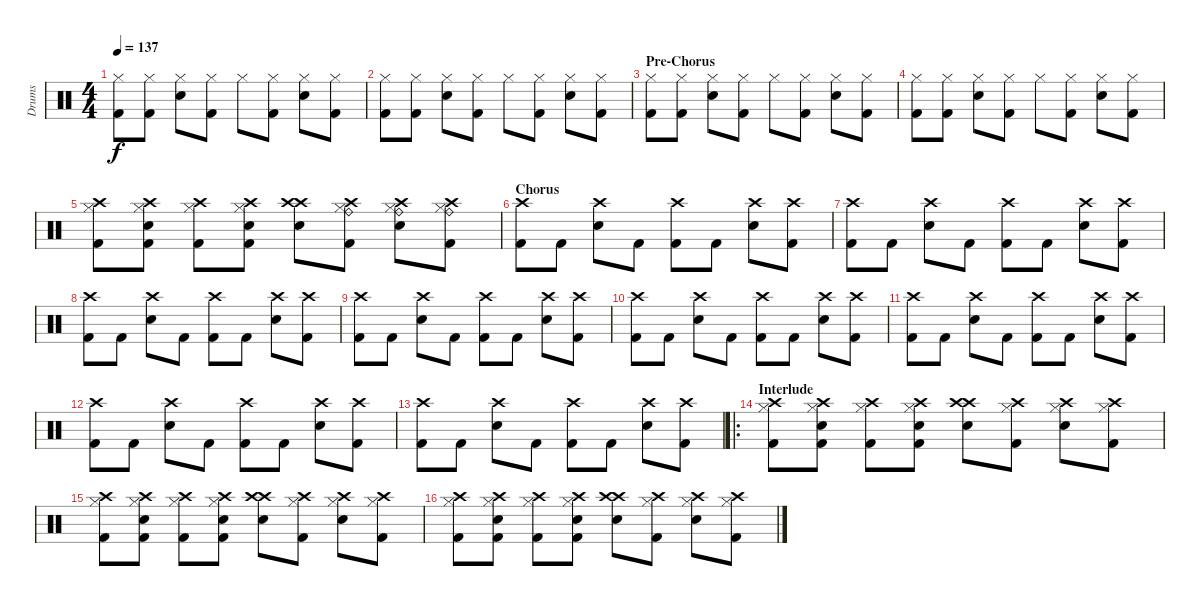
\track ("Drums" "Drums") {instrument percussion}
\staff {score}
\articulation defaults
\ts (4 4)
\tempo 137
\clef neutral
\ks c
("Kick (hit) 2" "Hi-Hat (closed)").8{dy f} ("Kick (hit) 2" "Hi-Hat (closed)").8 ("Snare (hit) 2" "Hi-Hat (closed)").8 ("Kick (hit) 2" "Hi-Hat (closed)").8 "Hi-Hat (closed)".8 ("Kick (hit) 2" "Hi-Hat (closed)").8 ("Snare (hit) 2" "Hi-Hat (closed)").8 ("Kick (hit) 2" "Hi-Hat (closed)").8 |
("Kick (hit) 2" "Hi-Hat (closed)").8 ("Kick (hit) 2" "Hi-Hat (closed)").8 ("Snare (hit) 2" "Hi-Hat (closed)").8 ("Kick (hit) 2" "Hi-Hat (closed)").8 "Hi-Hat (closed)".8 ("Kick (hit) 2" "Hi-Hat (closed)").8 ("Snare (hit) 2" "Hi-Hat (closed)").8 ("Kick (hit) 2" "Hi-Hat (closed)").8 |
\section ("" "Pre-Chorus")
("Kick (hit) 2" "Hi-Hat (closed)").8 ("Kick (hit) 2" "Hi-Hat (closed)").8 ("Snare (hit) 2" "Hi-Hat (closed)").8 ("Kick (hit) 2" "Hi-Hat (closed)").8 "Hi-Hat (closed)".8 ("Kick (hit) 2" "Hi-Hat (closed)").8 ("Snare (hit) 2" "Hi-Hat (closed)").8 ("Kick (hit) 2" "Hi-Hat (closed)").8 |
("Kick (hit) 2" "Hi-Hat (closed)").8 ("Kick (hit) 2" "Hi-Hat (closed)").8 ("Snare (hit) 2" "Hi-Hat (closed)").8 ("Kick (hit) 2" "Hi-Hat (closed)").8 "Hi-Hat (closed)".8 ("Kick (hit) 2" "Hi-Hat (closed)").8 ("Snare (hit) 2" "Hi-Hat (closed)").8 ("Kick (hit) 2" "Hi-Hat (closed)").8 |
("Kick (hit) 2" "Crash high (hit)" "Hi-Hat (closed)").8 ("Kick (hit) 2" "Crash high (hit)" "Snare (hit) 2" "Hi-Hat (closed)").8 ("Kick (hit) 2" "Crash high (hit)" "Hi-Hat (closed)").8 ("Kick (hit) 2" "Crash high (hit)" "Snare (hit) 2" "Hi-Hat (closed)").8 ("Crash high (hit)" "Crash high (hit)" "Snare (hit) 2").8 ("Kick (hit) 2" "Crash high (hit)" "Ride (bell)" "Hi-Hat (closed)").8 ("Crash high (hit)" "Snare (hit) 2" "Ride (bell)" "Hi-Hat (closed)").8 ("Kick (hit) 2" "Crash high (hit)" "Ride (bell)" "Hi-Hat (closed)").8 |
\section ("" "Chorus")
("Kick (hit) 2" "Crash high (hit)").8 "Kick (hit) 2".8 ("Snare (hit) 2" "Crash high (hit)").8 "Kick (hit) 2".8 ("Kick (hit) 2" "Crash high (hit)").8 "Kick (hit) 2".8 ("Snare (hit) 2" "Crash high (hit)").8 ("Kick (hit) 2" "Crash high (hit)").8 |
("Kick (hit) 2" "Crash high (hit)").8 "Kick (hit) 2".8 ("Snare (hit) 2" "Crash high (hit)").8 "Kick (hit) 2".8 ("Kick (hit) 2" "Crash high (hit)").8 "Kick (hit) 2".8 ("Snare (hit) 2" "Crash high (hit)").8 ("Kick (hit) 2" "Crash high (hit)").8 |
("Kick (hit) 2" "Crash high (hit)").8 "Kick (hit) 2".8 ("Snare (hit) 2" "Crash high (hit)").8 "Kick (hit) 2".8 ("Kick (hit) 2" "Crash high (hit)").8 "Kick (hit) 2".8 ("Snare (hit) 2" "Crash high (hit)").8 ("Kick (hit) 2" "Crash high (hit)").8 |
("Kick (hit) 2" "Crash high (hit)").8 "Kick (hit) 2".8 ("Snare (hit) 2" "Crash high (hit)").8 "Kick (hit) 2".8 ("Kick (hit) 2" "Crash high (hit)").8 "Kick (hit) 2".8 ("Snare (hit) 2" "Crash high (hit)").8 ("Kick (hit) 2" "Crash high (hit)").8 |
("Kick (hit) 2" "Crash high (hit)").8 "Kick (hit) 2".8 ("Snare (hit) 2" "Crash high (hit)").8 "Kick (hit) 2".8 ("Kick (hit) 2" "Crash high (hit)").8 "Kick (hit) 2".8 ("Snare (hit) 2" "Crash high (hit)").8 ("Kick (hit) 2" "Crash high (hit)").8 |
("Kick (hit) 2" "Crash high (hit)").8 "Kick (hit) 2".8 ("Snare (hit) 2" "Crash high (hit)").8 "Kick (hit) 2".8 ("Kick (hit) 2" "Crash high (hit)").8 "Kick (hit) 2".8 ("Snare (hit) 2" "Crash high (hit)").8 ("Kick (hit) 2" "Crash high (hit)").8 |
("Kick (hit) 2" "Crash high (hit)").8 "Kick (hit) 2".8 ("Snare (hit) 2" "Crash high (hit)").8 "Kick (hit) 2".8 ("Kick (hit) 2" "Crash high (hit)").8 "Kick (hit) 2".8 ("Snare (hit) 2" "Crash high (hit)").8 ("Kick (hit) 2" "Crash high (hit)").8 |
("Kick (hit) 2" "Crash high (hit)").8 "Kick (hit) 2".8 ("Snare (hit) 2" "Crash high (hit)").8 "Kick (hit) 2".8 ("Kick (hit) 2" "Crash high (hit)").8 "Kick (hit) 2".8 ("Snare (hit) 2" "Crash high (hit)").8 ("Kick (hit) 2" "Crash high (hit)").8 |
\ro
\section ("" "Interlude")
("Kick (hit) 2" "Crash high (hit)" "Hi-Hat (closed)").8 ("Kick (hit) 2" "Crash high (hit)" "Snare (hit) 2" "Hi-Hat (closed)").8 ("Kick (hit) 2" "Crash high (hit)" "Hi-Hat (closed)").8 ("Kick (hit) 2" "Crash high (hit)" "Snare (hit) 2" "Hi-Hat (closed)").8 ("Crash high (hit)" "Crash high (hit)" "Snare (hit) 2").8 ("Kick (hit) 2" "Crash high (hit)" "Hi-Hat (closed)").8 ("Crash high (hit)" "Snare (hit) 2" "Hi-Hat (closed)").8 ("Kick (hit) 2" "Crash high (hit)" "Hi-Hat (closed)").8 |
("Kick (hit) 2" "Crash high (hit)" "Hi-Hat (closed)").8 ("Kick (hit) 2" "Crash high (hit)" "Snare (hit) 2" "Hi-Hat (closed)").8 ("Kick (hit) 2" "Crash high (hit)" "Hi-Hat (closed)").8 ("Kick (hit) 2" "Crash high (hit)" "Snare (hit) 2" "Hi-Hat (closed)").8 ("Crash high (hit)" "Crash high (hit)" "Snare (hit) 2").8 ("Kick (hit) 2" "Crash high (hit)" "Hi-Hat (closed)").8 ("Crash high (hit)" "Snare (hit) 2" "Hi-Hat (closed)").8 ("Kick (hit) 2" "Crash high (hit)" "Hi-Hat (closed)").8 |
("Kick (hit) 2" "Crash high (hit)" "Hi-Hat (closed)").8 ("Kick (hit) 2" "Crash high (hit)" "Snare (hit) 2" "Hi-Hat (closed)").8 ("Kick (hit) 2" "Crash high (hit)" "Hi-Hat (closed)").8 ("Kick (hit) 2" "Crash high (hit)" "Snare (hit) 2" "Hi-Hat (closed)").8 ("Crash high (hit)" "Crash high (hit)" "Snare (hit) 2").8 ("Kick (hit) 2" "Crash high (hit)" "Hi-Hat (closed)").8 ("Crash high (hit)" "Snare (hit) 2" "Hi-Hat (closed)").8 ("Kick (hit) 2" "Crash high (hit)" "Hi-Hat (closed)").8
